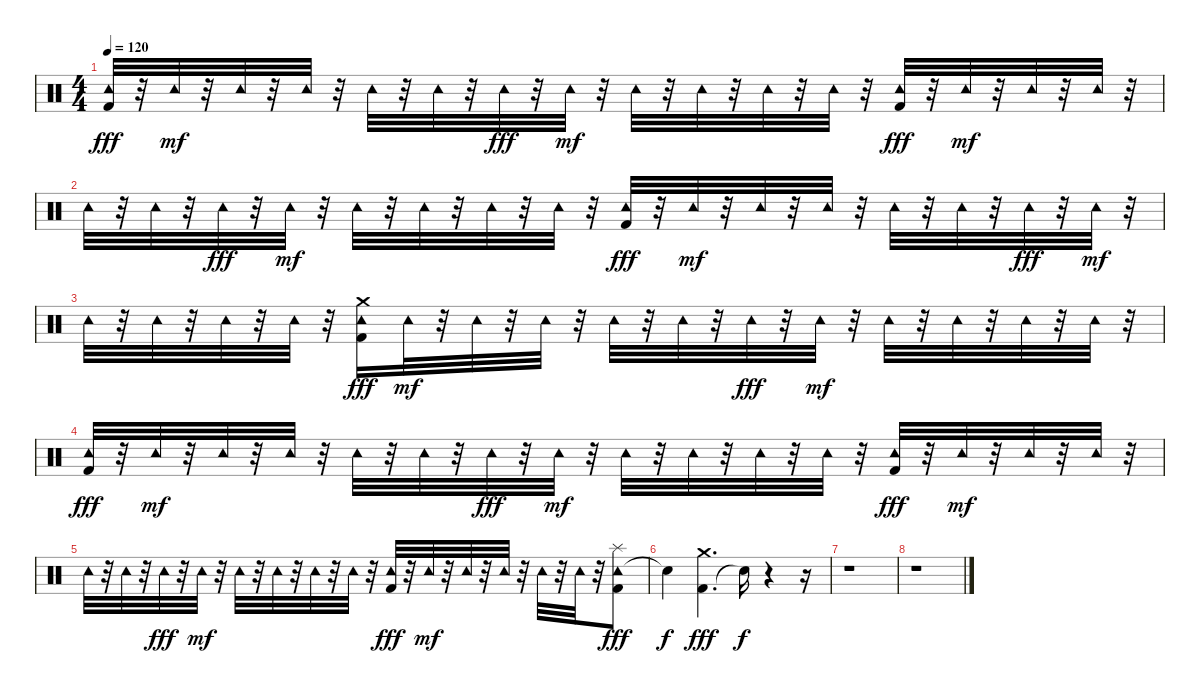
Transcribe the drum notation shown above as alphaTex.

\track "" {instrument percussion}
\staff {score}
\articulation defaults
\ts (4 4)
\tempo 120
\clef neutral
\ks c
("Tambourine (hit)" "Kick (hit) 2").32{dy fff} r.32 "Tambourine (hit)".32{dy mf} r.32 "Tambourine (hit)".32 r.32 "Tambourine (hit)".32 r.32 "Tambourine (hit)".32 r.32 "Tambourine (hit)".32 r.32 "Tambourine (hit)".32{dy fff} r.32 "Tambourine (hit)".32{dy mf} r.32 "Tambourine (hit)".32 r.32 "Tambourine (hit)".32 r.32 "Tambourine (hit)".32 r.32 "Tambourine (hit)".32 r.32 ("Kick (hit) 2" "Tambourine (hit)").32{dy fff} r.32 "Tambourine (hit)".32{dy mf} r.32 "Tambourine (hit)".32 r.32 "Tambourine (hit)".32 r.32 |
"Tambourine (hit)".32 r.32 "Tambourine (hit)".32 r.32 "Tambourine (hit)".32{dy fff} r.32 "Tambourine (hit)".32{dy mf} r.32 "Tambourine (hit)".32 r.32 "Tambourine (hit)".32 r.32 "Tambourine (hit)".32 r.32 "Tambourine (hit)".32 r.32 ("Tambourine (hit)" "Kick (hit) 2").32{dy fff} r.32 "Tambourine (hit)".32{dy mf} r.32 "Tambourine (hit)".32 r.32 "Tambourine (hit)".32 r.32 "Tambourine (hit)".32 r.32 "Tambourine (hit)".32 r.32 "Tambourine (hit)".32{dy fff} r.32 "Tambourine (hit)".32{dy mf} r.32 |
"Tambourine (hit)".32 r.32 "Tambourine (hit)".32 r.32 "Tambourine (hit)".32 r.32 "Tambourine (hit)".32 r.32 ("Crash medium (hit)" "Kick (hit) 2" "Tambourine (hit)").16{dy fff} "Tambourine (hit)".32{dy mf} r.32 "Tambourine (hit)".32 r.32 "Tambourine (hit)".32 r.32 "Tambourine (hit)".32 r.32 "Tambourine (hit)".32 r.32 "Tambourine (hit)".32{dy fff} r.32 "Tambourine (hit)".32{dy mf} r.32 "Tambourine (hit)".32 r.32 "Tambourine (hit)".32 r.32 "Tambourine (hit)".32 r.32 "Tambourine (hit)".32 r.32 |
("Kick (hit) 2" "Tambourine (hit)").32{dy fff} r.32 "Tambourine (hit)".32{dy mf} r.32 "Tambourine (hit)".32 r.32 "Tambourine (hit)".32 r.32 "Tambourine (hit)".32 r.32 "Tambourine (hit)".32 r.32 "Tambourine (hit)".32{dy fff} r.32 "Tambourine (hit)".32{dy mf} r.32 "Tambourine (hit)".32 r.32 "Tambourine (hit)".32 r.32 "Tambourine (hit)".32 r.32 "Tambourine (hit)".32 r.32 ("Kick (hit) 2" "Tambourine (hit)").32{dy fff} r.32 "Tambourine (hit)".32{dy mf} r.32 "Tambourine (hit)".32 r.32 "Tambourine (hit)".32 r.32 |
"Tambourine (hit)".32 r.32 "Tambourine (hit)".32 r.32 "Tambourine (hit)".32{dy fff} r.32 "Tambourine (hit)".32{dy mf} r.32 "Tambourine (hit)".32 r.32 "Tambourine (hit)".32 r.32 "Tambourine (hit)".32 r.32 "Tambourine (hit)".32 r.32 ("Tambourine (hit)" "Kick (hit) 2").32{dy fff} r.32 "Tambourine (hit)".32{dy mf} r.32 "Tambourine (hit)".32 r.32 "Tambourine (hit)".32 r.32 "Tambourine (hit)".32 r.32 "Tambourine (hit)".32 r.32 ("Tambourine (hit)" "Splash (hit)" "Kick (hit) 2").8{dy fff} |
"Snare (hit)"{t}.4{dy f} ("Kick (hit) 2" "Crash medium (hit)").4{d dy fff} "Snare (hit)"{t}.16{dy f} r.4 r.16 |
r.1 |
r.1
